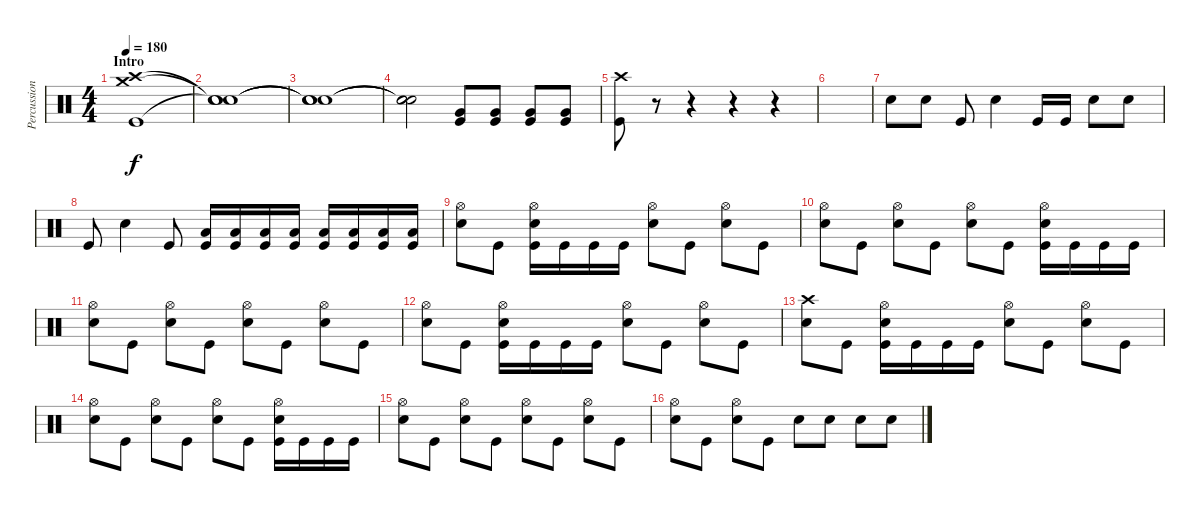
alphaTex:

\track ("Percussion" "Percussion") {instrument percussion}
\staff {score}
\articulation defaults
\ts (4 4)
\section ("" "Intro")
\tempo 180
\clef neutral
\ks c
("Kick (hit)" "Crash medium (hit)" "Crash high (hit)").1{dy f} |
("Snare (hit)"{t} "Snare (hit)"{t} "Snare (hit)"{t}).1 |
("Snare (hit)"{t} "Snare (hit)"{t} "Snare (hit)"{t}).1 |
("Snare (hit)"{t} "Snare (hit)"{t} "Snare (hit)"{t}).2 ("Very Low Tom (hit)" "Kick (hit)").8 ("Very Low Tom (hit)" "Kick (hit)").8 ("Very Low Tom (hit)" "Kick (hit)").8 ("Very Low Tom (hit)" "Kick (hit)").8 |
("Crash high (hit)" "Kick (hit)").8 r.8 r.4 r.4 r.4 |
|
"Snare (hit) 2".8 "Snare (hit) 2".8 "Kick (hit)".8 "Snare (hit) 2".4 "Kick (hit)".16 "Kick (hit)".16 "Snare (hit) 2".8 "Snare (hit) 2".8 |
"Kick (hit)".8 "Snare (hit) 2".4 "Kick (hit)".8 ("Kick (hit)" "Low Tom (hit)").16 ("Kick (hit)" "Low Tom (hit)").16 ("Kick (hit)" "Low Tom (hit)").16 ("Kick (hit)" "Low Tom (hit)").16 ("Kick (hit)" "Low Tom (hit)").16 ("Kick (hit)" "Low Tom (hit)").16 ("Kick (hit)" "Low Tom (hit)").16 ("Kick (hit)" "Low Tom (hit)").16 |
("Hi-Hat (open)" "Snare (hit) 2").8 "Kick (hit)".8 ("Hi-Hat (open)" "Kick (hit)" "Snare (hit) 2").16 "Kick (hit)".16 "Kick (hit)".16 "Kick (hit)".16 ("Hi-Hat (open)" "Snare (hit) 2").8 "Kick (hit)".8 ("Hi-Hat (open)" "Snare (hit) 2").8 "Kick (hit)".8 |
("Hi-Hat (open)" "Snare (hit) 2").8 "Kick (hit)".8 ("Hi-Hat (open)" "Snare (hit) 2").8 "Kick (hit)".8 ("Hi-Hat (open)" "Snare (hit) 2").8 "Kick (hit)".8 ("Hi-Hat (open)" "Snare (hit) 2" "Kick (hit)").16 "Kick (hit)".16 "Kick (hit)".16 "Kick (hit)".16 |
("Hi-Hat (open)" "Snare (hit) 2").8 "Kick (hit)".8 ("Hi-Hat (open)" "Snare (hit) 2").8 "Kick (hit)".8 ("Hi-Hat (open)" "Snare (hit) 2").8 "Kick (hit)".8 ("Hi-Hat (open)" "Snare (hit) 2").8 "Kick (hit)".8 |
("Snare (hit) 2" "Hi-Hat (open)").8 "Kick (hit)".8 ("Kick (hit)" "Hi-Hat (open)" "Snare (hit) 2").16 "Kick (hit)".16 "Kick (hit)".16 "Kick (hit)".16 ("Hi-Hat (open)" "Snare (hit) 2").8 "Kick (hit)".8 ("Hi-Hat (open)" "Snare (hit) 2").8 "Kick (hit)".8 |
("Snare (hit) 2" "Crash high (hit)").8 "Kick (hit)".8 ("Kick (hit)" "Hi-Hat (open)" "Snare (hit) 2").16 "Kick (hit)".16 "Kick (hit)".16 "Kick (hit)".16 ("Hi-Hat (open)" "Snare (hit) 2").8 "Kick (hit)".8 ("Hi-Hat (open)" "Snare (hit) 2").8 "Kick (hit)".8 |
("Hi-Hat (open)" "Snare (hit) 2").8 "Kick (hit)".8 ("Hi-Hat (open)" "Snare (hit) 2").8 "Kick (hit)".8 ("Hi-Hat (open)" "Snare (hit) 2").8 "Kick (hit)".8 ("Hi-Hat (open)" "Snare (hit) 2" "Kick (hit)").16 "Kick (hit)".16 "Kick (hit)".16 "Kick (hit)".16 |
("Hi-Hat (open)" "Snare (hit) 2").8 "Kick (hit)".8 ("Hi-Hat (open)" "Snare (hit) 2").8 "Kick (hit)".8 ("Hi-Hat (open)" "Snare (hit) 2").8 "Kick (hit)".8 ("Hi-Hat (open)" "Snare (hit) 2").8 "Kick (hit)".8 |
("Hi-Hat (open)" "Snare (hit) 2").8 "Kick (hit)".8 ("Hi-Hat (open)" "Snare (hit) 2").8 "Kick (hit)".8 "Snare (hit) 2".8 "Snare (hit) 2".8 "Snare (hit) 2".8 "Snare (hit) 2".8
